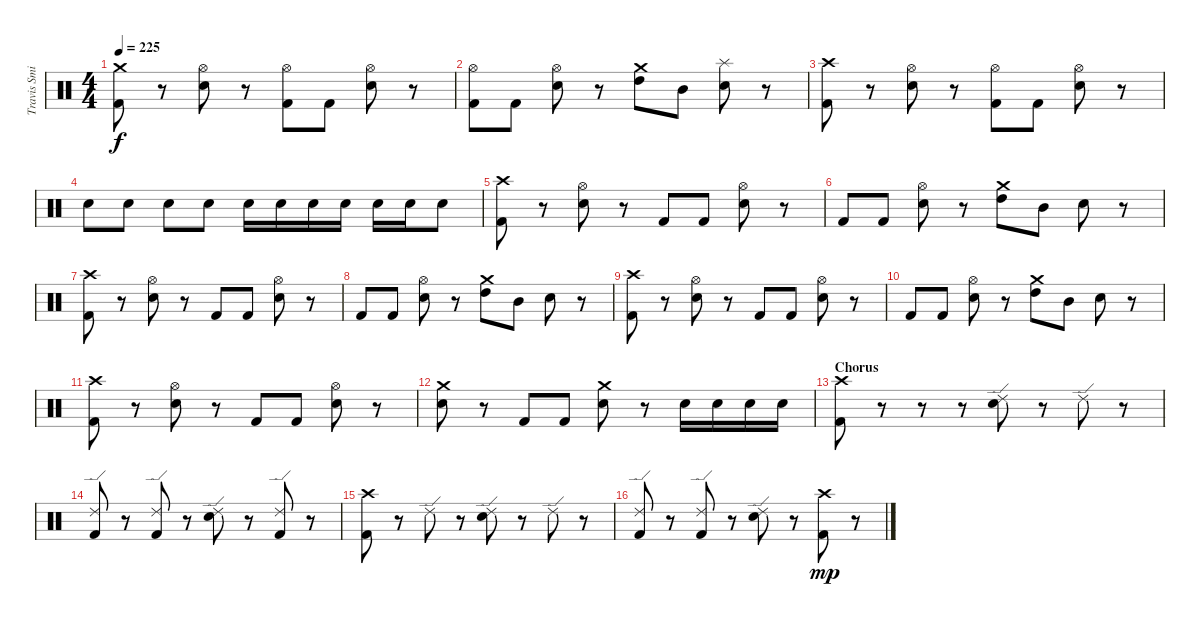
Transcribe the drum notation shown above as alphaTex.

\track ("Travis Smith" "Travis Smi") {instrument percussion}
\staff {score}
\articulation defaults
\ts (4 4)
\tempo 225
\clef neutral
\ks c
("Crash medium (hit)" "Kick (hit) 2").8{dy f} r.8 ("Hi-Hat (open)" "Electric Snare (hit)").8 r.8 ("Hi-Hat (open)" "Kick (hit) 2").8 "Kick (hit) 2".8 ("Hi-Hat (open)" "Electric Snare (hit)").8 r.8 |
("Hi-Hat (open)" "Kick (hit) 2").8 "Kick (hit) 2".8 ("Hi-Hat (open)" "Electric Snare (hit)").8 r.8 ("Crash medium (hit)" "High Tom (hit)").8 "Mid Tom (hit)".8 ("Splash (hit)" "Electric Snare (hit)").8 r.8 |
("Crash high (hit)" "Kick (hit) 2").8 r.8 ("Hi-Hat (open)" "Electric Snare (hit)").8 r.8 ("Hi-Hat (open)" "Kick (hit) 2").8 "Kick (hit) 2".8 ("Hi-Hat (open)" "Electric Snare (hit)").8 r.8 |
"Electric Snare (hit)".8 "Electric Snare (hit)".8 "Electric Snare (hit)".8 "Electric Snare (hit)".8 "Electric Snare (hit)".16 "Electric Snare (hit)".16 "Electric Snare (hit)".16 "Electric Snare (hit)".16 "Electric Snare (hit)".16 "Electric Snare (hit)".16 "Electric Snare (hit)".8 |
("Crash high (hit)" "Kick (hit) 2").8 r.8 ("Hi-Hat (open)" "Electric Snare (hit)").8 r.8 "Kick (hit) 2".8 "Kick (hit) 2".8 ("Hi-Hat (open)" "Electric Snare (hit)").8 r.8 |
"Kick (hit) 2".8 "Kick (hit) 2".8 ("Hi-Hat (open)" "Electric Snare (hit)").8 r.8 ("Crash medium (hit)" "High Tom (hit)").8 "Mid Tom (hit)".8 "Electric Snare (hit)".8 r.8 |
("Crash high (hit)" "Kick (hit) 2").8 r.8 ("Hi-Hat (open)" "Electric Snare (hit)").8 r.8 "Kick (hit) 2".8 "Kick (hit) 2".8 ("Hi-Hat (open)" "Electric Snare (hit)").8 r.8 |
"Kick (hit) 2".8 "Kick (hit) 2".8 ("Hi-Hat (open)" "Electric Snare (hit)").8 r.8 ("Crash medium (hit)" "High Tom (hit)").8 "Mid Tom (hit)".8 "Electric Snare (hit)".8 r.8 |
("Crash high (hit)" "Kick (hit) 2").8 r.8 ("Hi-Hat (open)" "Electric Snare (hit)").8 r.8 "Kick (hit) 2".8 "Kick (hit) 2".8 ("Hi-Hat (open)" "Electric Snare (hit)").8 r.8 |
"Kick (hit) 2".8 "Kick (hit) 2".8 ("Hi-Hat (open)" "Electric Snare (hit)").8 r.8 ("Crash medium (hit)" "High Tom (hit)").8 "Mid Tom (hit)".8 "Electric Snare (hit)".8 r.8 |
("Crash high (hit)" "Kick (hit) 2").8 r.8 ("Hi-Hat (open)" "Electric Snare (hit)").8 r.8 "Kick (hit) 2".8 "Kick (hit) 2".8 ("Hi-Hat (open)" "Electric Snare (hit)").8 r.8 |
("Crash medium (hit)" "Electric Snare (hit)").8 r.8 "Kick (hit) 2".8 "Kick (hit) 2".8 ("Crash medium (hit)" "Electric Snare (hit)").8 r.8 "Electric Snare (hit)".16 "Electric Snare (hit)".16 "Electric Snare (hit)".16 "Electric Snare (hit)".16 |
\section ("" "Chorus")
("Crash high (hit)" "Kick (hit) 2").8 r.8 r.8 r.8 ("Ride (edge) 2" "Electric Snare (hit)").8 r.8 "Ride (edge) 2".8 r.8 |
("Ride (edge) 2" "Kick (hit) 2").8 r.8 ("Ride (edge) 2" "Kick (hit) 2").8 r.8 ("Ride (edge) 2" "Electric Snare (hit)").8 r.8 ("Ride (edge) 2" "Kick (hit) 2").8 r.8 |
("Crash high (hit)" "Kick (hit) 2").8 r.8 "Ride (edge) 2".8 r.8 ("Ride (edge) 2" "Electric Snare (hit)").8 r.8 "Ride (edge) 2".8 r.8 |
("Ride (edge) 2" "Kick (hit) 2").8 r.8 ("Ride (edge) 2" "Kick (hit) 2").8 r.8 ("Ride (edge) 2" "Electric Snare (hit)").8 r.8 ("Crash high (hit)" "Kick (hit) 2").8{dy mp} r.8
